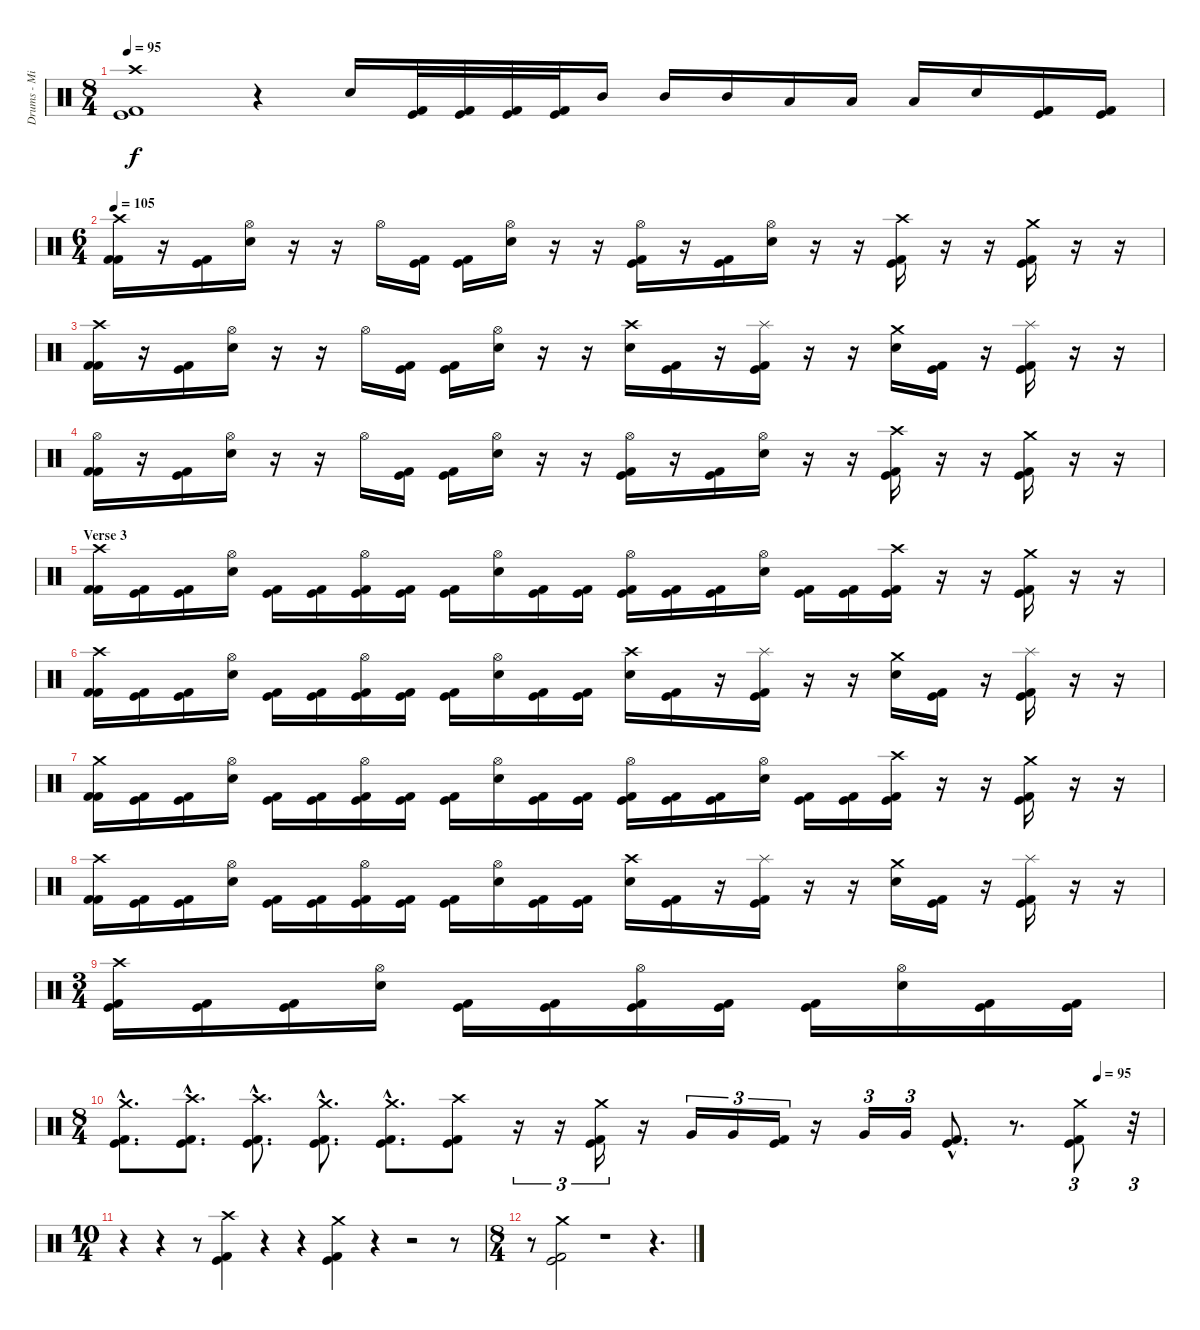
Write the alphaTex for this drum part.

\track ("Drums - Mikkey Dee" "Drums - Mi") {instrument percussion}
\staff {score}
\articulation defaults
\ts (8 4)
\tempo 95
\clef neutral
\ks c
("Crash high (hit)" "Kick (hit)" "Kick (hit) 2").1{dy f} r.4 "Snare (hit) 2".16 ("Kick (hit)" "Kick (hit) 2").32 ("Kick (hit)" "Kick (hit) 2").32 ("Kick (hit)" "Kick (hit) 2").32 ("Kick (hit)" "Kick (hit) 2").32 "Mid Tom (hit)".16 "Mid Tom (hit)".16 "Mid Tom (hit)".16 "Low Tom (hit)".16 "Low Tom (hit)".16 "Low Tom (hit)".16 "Snare (hit) 2".16 ("Kick (hit)" "Kick (hit) 2").16 ("Kick (hit)" "Kick (hit) 2").16 |
\ts (6 4)
\tempo 105
("Crash high (hit)" "Kick (hit) 2" "Kick (hit) 2").16 r.16 ("Kick (hit)" "Kick (hit) 2").16 ("Hi-Hat (open)" "Snare (hit) 2").16 r.16 r.16 "Hi-Hat (open)".16 ("Kick (hit)" "Kick (hit) 2").16 ("Kick (hit)" "Kick (hit) 2").16 ("Hi-Hat (open)" "Snare (hit) 2").16 r.16 r.16 ("Hi-Hat (open)" "Kick (hit)" "Kick (hit) 2").16 r.16 ("Kick (hit)" "Kick (hit) 2").16 ("Hi-Hat (open)" "Snare (hit) 2").16 r.16 r.16 ("Crash high (hit)" "Kick (hit)" "Kick (hit) 2").16 r.16 r.16 ("Crash medium (hit)" "Kick (hit)" "Kick (hit) 2").16 r.16 r.16 |
("Crash high (hit)" "Kick (hit) 2" "Kick (hit) 2").16 r.16 ("Kick (hit)" "Kick (hit) 2").16 ("Hi-Hat (open)" "Snare (hit) 2").16 r.16 r.16 "Hi-Hat (open)".16 ("Kick (hit)" "Kick (hit) 2").16 ("Kick (hit)" "Kick (hit) 2").16 ("Hi-Hat (open)" "Snare (hit) 2").16 r.16 r.16 ("Crash high (hit)" "Snare (hit) 2").16 ("Kick (hit)" "Kick (hit) 2").16 r.16 ("Splash (hit)" "Kick (hit)" "Kick (hit) 2").16 r.16 r.16 ("Crash medium (hit)" "Snare (hit) 2").16 ("Kick (hit)" "Kick (hit) 2").16 r.16 ("Splash (hit)" "Kick (hit)" "Kick (hit) 2").16 r.16 r.16 |
("Hi-Hat (open)" "Kick (hit) 2" "Kick (hit) 2").16 r.16 ("Kick (hit)" "Kick (hit) 2").16 ("Hi-Hat (open)" "Snare (hit) 2").16 r.16 r.16 "Hi-Hat (open)".16 ("Kick (hit)" "Kick (hit) 2").16 ("Kick (hit)" "Kick (hit) 2").16 ("Hi-Hat (open)" "Snare (hit) 2").16 r.16 r.16 ("Hi-Hat (open)" "Kick (hit)" "Kick (hit) 2").16 r.16 ("Kick (hit)" "Kick (hit) 2").16 ("Hi-Hat (open)" "Snare (hit) 2").16 r.16 r.16 ("Crash high (hit)" "Kick (hit)" "Kick (hit) 2").16 r.16 r.16 ("Crash medium (hit)" "Kick (hit)" "Kick (hit) 2").16 r.16 r.16 |
\section ("" "Verse 3")
("Crash high (hit)" "Kick (hit) 2" "Kick (hit) 2").16 ("Kick (hit)" "Kick (hit) 2").16 ("Kick (hit)" "Kick (hit) 2").16 ("Hi-Hat (open)" "Snare (hit) 2").16 ("Kick (hit)" "Kick (hit) 2").16 ("Kick (hit)" "Kick (hit) 2").16 ("Hi-Hat (open)" "Kick (hit)" "Kick (hit) 2").16 ("Kick (hit)" "Kick (hit) 2").16 ("Kick (hit)" "Kick (hit) 2").16 ("Hi-Hat (open)" "Snare (hit) 2").16 ("Kick (hit)" "Kick (hit) 2").16 ("Kick (hit)" "Kick (hit) 2").16 ("Hi-Hat (open)" "Kick (hit)" "Kick (hit) 2").16 ("Kick (hit)" "Kick (hit) 2").16 ("Kick (hit)" "Kick (hit) 2").16 ("Hi-Hat (open)" "Snare (hit) 2").16 ("Kick (hit)" "Kick (hit) 2").16 ("Kick (hit)" "Kick (hit) 2").16 ("Crash high (hit)" "Kick (hit)" "Kick (hit) 2").16 r.16 r.16 ("Crash medium (hit)" "Kick (hit)" "Kick (hit) 2").16 r.16 r.16 |
("Crash high (hit)" "Kick (hit) 2" "Kick (hit) 2").16 ("Kick (hit)" "Kick (hit) 2").16 ("Kick (hit)" "Kick (hit) 2").16 ("Hi-Hat (open)" "Snare (hit) 2").16 ("Kick (hit)" "Kick (hit) 2").16 ("Kick (hit)" "Kick (hit) 2").16 ("Hi-Hat (open)" "Kick (hit)" "Kick (hit) 2").16 ("Kick (hit)" "Kick (hit) 2").16 ("Kick (hit)" "Kick (hit) 2").16 ("Hi-Hat (open)" "Snare (hit) 2").16 ("Kick (hit)" "Kick (hit) 2").16 ("Kick (hit)" "Kick (hit) 2").16 ("Crash high (hit)" "Snare (hit) 2").16 ("Kick (hit)" "Kick (hit) 2").16 r.16 ("Splash (hit)" "Kick (hit)" "Kick (hit) 2").16 r.16 r.16 ("Crash medium (hit)" "Snare (hit) 2").16 ("Kick (hit)" "Kick (hit) 2").16 r.16 ("Splash (hit)" "Kick (hit)" "Kick (hit) 2").16 r.16 r.16 |
("Crash medium (hit)" "Kick (hit) 2" "Kick (hit) 2").16 ("Kick (hit)" "Kick (hit) 2").16 ("Kick (hit)" "Kick (hit) 2").16 ("Hi-Hat (open)" "Snare (hit) 2").16 ("Kick (hit)" "Kick (hit) 2").16 ("Kick (hit)" "Kick (hit) 2").16 ("Hi-Hat (open)" "Kick (hit)" "Kick (hit) 2").16 ("Kick (hit)" "Kick (hit) 2").16 ("Kick (hit)" "Kick (hit) 2").16 ("Hi-Hat (open)" "Snare (hit) 2").16 ("Kick (hit)" "Kick (hit) 2").16 ("Kick (hit)" "Kick (hit) 2").16 ("Hi-Hat (open)" "Kick (hit)" "Kick (hit) 2").16 ("Kick (hit)" "Kick (hit) 2").16 ("Kick (hit)" "Kick (hit) 2").16 ("Hi-Hat (open)" "Snare (hit) 2").16 ("Kick (hit)" "Kick (hit) 2").16 ("Kick (hit)" "Kick (hit) 2").16 ("Crash high (hit)" "Kick (hit)" "Kick (hit) 2").16 r.16 r.16 ("Crash medium (hit)" "Kick (hit)" "Kick (hit) 2").16 r.16 r.16 |
("Crash high (hit)" "Kick (hit) 2" "Kick (hit) 2").16 ("Kick (hit)" "Kick (hit) 2").16 ("Kick (hit)" "Kick (hit) 2").16 ("Hi-Hat (open)" "Snare (hit) 2").16 ("Kick (hit)" "Kick (hit) 2").16 ("Kick (hit)" "Kick (hit) 2").16 ("Hi-Hat (open)" "Kick (hit)" "Kick (hit) 2").16 ("Kick (hit)" "Kick (hit) 2").16 ("Kick (hit)" "Kick (hit) 2").16 ("Hi-Hat (open)" "Snare (hit) 2").16 ("Kick (hit)" "Kick (hit) 2").16 ("Kick (hit)" "Kick (hit) 2").16 ("Crash high (hit)" "Snare (hit) 2").16 ("Kick (hit)" "Kick (hit) 2").16 r.16 ("Splash (hit)" "Kick (hit)" "Kick (hit) 2").16 r.16 r.16 ("Crash medium (hit)" "Snare (hit) 2").16 ("Kick (hit)" "Kick (hit) 2").16 r.16 ("Splash (hit)" "Kick (hit)" "Kick (hit) 2").16 r.16 r.16 |
\ts (3 4)
("Crash high (hit)" "Kick (hit)" "Kick (hit) 2").16 ("Kick (hit)" "Kick (hit) 2").16 ("Kick (hit)" "Kick (hit) 2").16 ("Hi-Hat (open)" "Snare (hit) 2").16 ("Kick (hit)" "Kick (hit) 2").16 ("Kick (hit)" "Kick (hit) 2").16 ("Hi-Hat (open)" "Kick (hit)" "Kick (hit) 2").16 ("Kick (hit)" "Kick (hit) 2").16 ("Kick (hit)" "Kick (hit) 2").16 ("Hi-Hat (open)" "Snare (hit) 2").16 ("Kick (hit)" "Kick (hit) 2").16 ("Kick (hit)" "Kick (hit) 2").16 |
\ts (8 4)
\tempo (95 0.9375)
("Crash medium (hit)"{hac} "Kick (hit)"{hac} "Kick (hit) 2"{hac}).8{d} ("Crash high (hit)"{hac} "Kick (hit)"{hac} "Kick (hit) 2"{hac}).8{d} ("Crash high (hit)"{hac} "Kick (hit)"{hac} "Kick (hit) 2"{hac}).8{d} ("Crash medium (hit)"{hac} "Kick (hit)"{hac} "Kick (hit) 2"{hac}).8{d} ("Crash medium (hit)"{hac} "Kick (hit)"{hac} "Kick (hit) 2"{hac}).8{d} ("Crash high (hit)" "Kick (hit)" "Kick (hit) 2").8 r.16{tu (3 2)} r.16{tu (3 2)} ("Crash medium (hit)" "Kick (hit)" "Kick (hit) 2").16{tu (3 2)} r.16 "Very Low Tom (hit)".16{tu (3 2)} "Very Low Tom (hit)".16{tu (3 2)} ("Kick (hit)" "Kick (hit) 2").16{tu (3 2)} r.16 "Very Low Tom (hit)".16{tu (3 2)} "Very Low Tom (hit)".16{tu (3 2)} ("Kick (hit)"{hac} "Kick (hit) 2"{hac}).8{d} r.8{d} ("Crash medium (hit)" "Kick (hit)" "Kick (hit) 2").8{tu (3 2)} r.32{tu (3 2)} |
\ts (10 4)
r.4 r.4 r.8 ("Crash high (hit)" "Kick (hit)" "Kick (hit) 2").4 r.4 r.4 ("Crash medium (hit)" "Kick (hit)" "Kick (hit) 2").4 r.4 r.2 r.8 |
\ts (8 4)
r.8 ("Crash medium (hit)" "Kick (hit)" "Kick (hit) 2").2 r.1 r.4{d}
